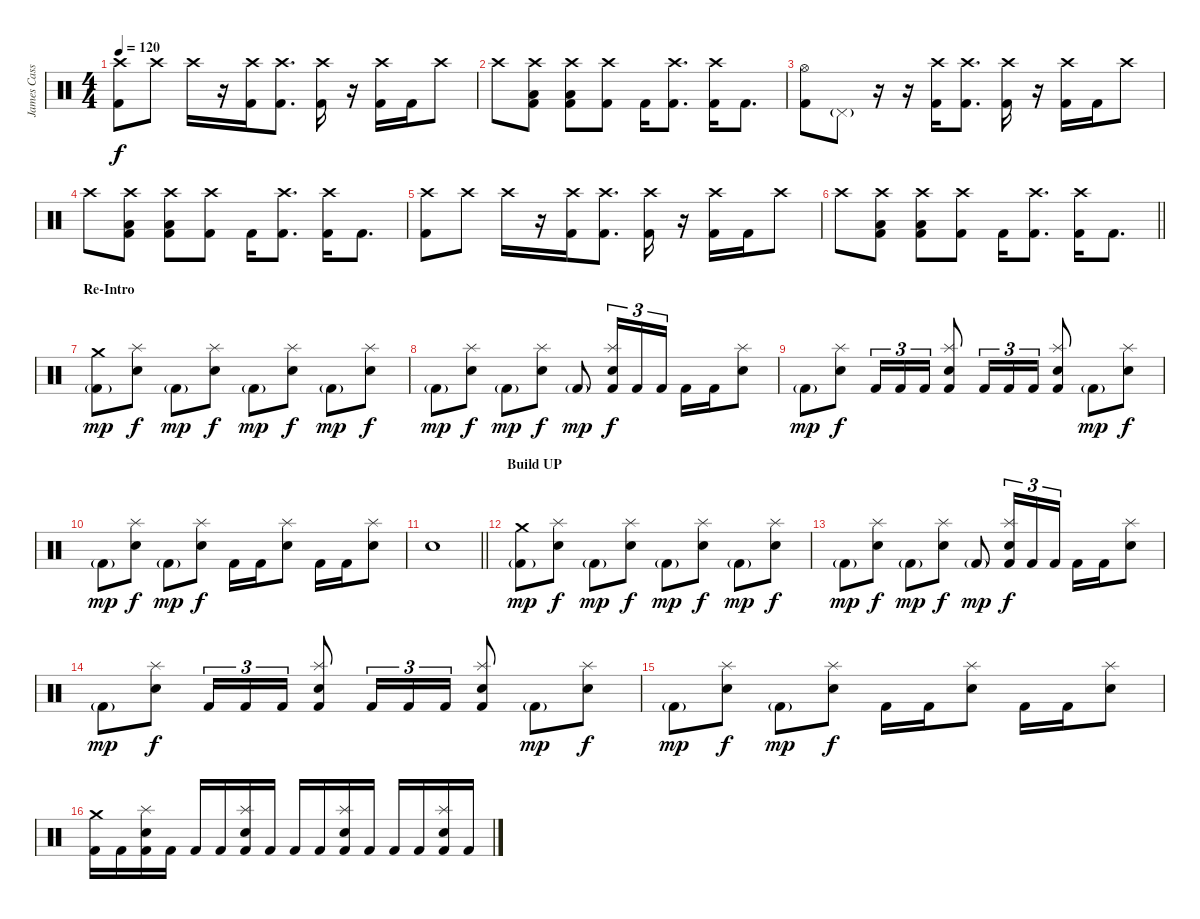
\track ("James Cassels" "James Cass") {instrument percussion}
\staff {score}
\articulation defaults
\ts (4 4)
\tempo 120
\clef neutral
\ks c
("Kick (hit) 2" "Crash high (hit)").8{dy f} "Crash high (hit)".8 "Crash high (hit)".16 r.16 ("Crash high (hit)" "Kick (hit) 2").16 ("Crash high (hit)" "Kick (hit) 2").8{d} ("Crash high (hit)" "Kick (hit) 2").16 r.16 ("Crash high (hit)" "Kick (hit) 2").16 "Kick (hit) 2".16 "Crash high (hit)".8 |
"Crash high (hit)".8 ("Crash high (hit)" "Kick (hit) 2" "Low Floor Tom (hit)").8 ("Crash high (hit)" "Kick (hit) 2" "Low Floor Tom (hit)").8 ("Crash high (hit)" "Kick (hit) 2").8 "Kick (hit) 2".16 ("Crash high (hit)" "Kick (hit) 2").8{d} ("Crash high (hit)" "Kick (hit) 2").16 "Kick (hit) 2".8{d} |
("Kick (hit) 2" "Hi-Hat (open)").8 "Pedal Hi-Hat (hit)"{g}.8 r.16 r.16 ("Crash high (hit)" "Kick (hit) 2").16 ("Crash high (hit)" "Kick (hit) 2").8{d} ("Crash high (hit)" "Kick (hit) 2").16 r.16 ("Crash high (hit)" "Kick (hit) 2").16 "Kick (hit) 2".16 "Crash high (hit)".8 |
"Crash high (hit)".8 ("Crash high (hit)" "Kick (hit) 2" "Low Floor Tom (hit)").8 ("Crash high (hit)" "Kick (hit) 2" "Low Floor Tom (hit)").8 ("Crash high (hit)" "Kick (hit) 2").8 "Kick (hit) 2".16 ("Crash high (hit)" "Kick (hit) 2").8{d} ("Crash high (hit)" "Kick (hit) 2").16 "Kick (hit) 2".8{d} |
("Kick (hit) 2" "Crash high (hit)").8 "Crash high (hit)".8 "Crash high (hit)".16 r.16 ("Crash high (hit)" "Kick (hit) 2").16 ("Crash high (hit)" "Kick (hit) 2").8{d} ("Crash high (hit)" "Kick (hit) 2").16 r.16 ("Crash high (hit)" "Kick (hit) 2").16 "Kick (hit) 2".16 "Crash high (hit)".8 |
\barLineRight lightlight "Crash high (hit)".8
("Crash high (hit)" "Kick (hit) 2" "Low Floor Tom (hit)").8 ("Crash high (hit)" "Kick (hit) 2" "Low Floor Tom (hit)").8 ("Crash high (hit)" "Kick (hit) 2").8 "Kick (hit) 2".16 ("Crash high (hit)" "Kick (hit) 2").8{d} ("Crash high (hit)" "Kick (hit) 2").16 "Kick (hit) 2".8{d} |
\section ("" "Re-Intro")
("Crash medium (hit)" "Kick (hit) 2"{g}).8{dy mp} ("Splash (hit)" "Electric Snare (hit)").8{dy f} "Kick (hit) 2"{g}.8{dy mp} ("Splash (hit)" "Electric Snare (hit)").8{dy f} "Kick (hit) 2"{g}.8{dy mp} ("Splash (hit)" "Electric Snare (hit)").8{dy f} "Kick (hit) 2"{g}.8{dy mp} ("Splash (hit)" "Electric Snare (hit)").8{dy f} |
"Kick (hit) 2"{g}.8{dy mp} ("Splash (hit)" "Electric Snare (hit)").8{dy f} "Kick (hit) 2"{g}.8{dy mp} ("Splash (hit)" "Electric Snare (hit)").8{dy f} "Kick (hit) 2"{g}.8{dy mp} ("Splash (hit)" "Electric Snare (hit)" "Kick (hit) 2").16{tu (3 2) dy f} "Kick (hit) 2".16{tu (3 2)} "Kick (hit) 2".16{tu (3 2)} "Kick (hit) 2".16 "Kick (hit) 2".16 ("Electric Snare (hit)" "Splash (hit)").8 |
"Kick (hit) 2"{g}.8{dy mp} ("Splash (hit)" "Electric Snare (hit)").8{dy f} "Kick (hit) 2".16{tu (3 2)} "Kick (hit) 2".16{tu (3 2)} "Kick (hit) 2".16{tu (3 2)} ("Splash (hit)" "Electric Snare (hit)" "Kick (hit) 2").8 "Kick (hit) 2".16{tu (3 2)} "Kick (hit) 2".16{tu (3 2)} "Kick (hit) 2".16{tu (3 2)} ("Splash (hit)" "Electric Snare (hit)" "Kick (hit) 2").8 "Kick (hit) 2"{g}.8{dy mp} ("Splash (hit)" "Electric Snare (hit)").8{dy f} |
"Kick (hit) 2"{g}.8{dy mp} ("Splash (hit)" "Electric Snare (hit)").8{dy f} "Kick (hit) 2"{g}.8{dy mp} ("Splash (hit)" "Electric Snare (hit)").8{dy f} "Kick (hit) 2".16 "Kick (hit) 2".16 ("Splash (hit)" "Electric Snare (hit)").8 "Kick (hit) 2".16 "Kick (hit) 2".16 ("Splash (hit)" "Electric Snare (hit)").8 |
\barLineRight lightlight "Electric Snare (hit)".1
|
\section ("" "Build UP")
("Crash medium (hit)" "Kick (hit) 2"{g}).8{dy mp} ("Splash (hit)" "Electric Snare (hit)").8{dy f} "Kick (hit) 2"{g}.8{dy mp} ("Splash (hit)" "Electric Snare (hit)").8{dy f} "Kick (hit) 2"{g}.8{dy mp} ("Splash (hit)" "Electric Snare (hit)").8{dy f} "Kick (hit) 2"{g}.8{dy mp} ("Splash (hit)" "Electric Snare (hit)").8{dy f} |
"Kick (hit) 2"{g}.8{dy mp} ("Splash (hit)" "Electric Snare (hit)").8{dy f} "Kick (hit) 2"{g}.8{dy mp} ("Splash (hit)" "Electric Snare (hit)").8{dy f} "Kick (hit) 2"{g}.8{dy mp} ("Splash (hit)" "Electric Snare (hit)" "Kick (hit) 2").16{tu (3 2) dy f} "Kick (hit) 2".16{tu (3 2)} "Kick (hit) 2".16{tu (3 2)} "Kick (hit) 2".16 "Kick (hit) 2".16 ("Electric Snare (hit)" "Splash (hit)").8 |
"Kick (hit) 2"{g}.8{dy mp} ("Splash (hit)" "Electric Snare (hit)").8{dy f} "Kick (hit) 2".16{tu (3 2)} "Kick (hit) 2".16{tu (3 2)} "Kick (hit) 2".16{tu (3 2)} ("Splash (hit)" "Electric Snare (hit)" "Kick (hit) 2").8 "Kick (hit) 2".16{tu (3 2)} "Kick (hit) 2".16{tu (3 2)} "Kick (hit) 2".16{tu (3 2)} ("Splash (hit)" "Electric Snare (hit)" "Kick (hit) 2").8 "Kick (hit) 2"{g}.8{dy mp} ("Splash (hit)" "Electric Snare (hit)").8{dy f} |
"Kick (hit) 2"{g}.8{dy mp} ("Splash (hit)" "Electric Snare (hit)").8{dy f} "Kick (hit) 2"{g}.8{dy mp} ("Splash (hit)" "Electric Snare (hit)").8{dy f} "Kick (hit) 2".16 "Kick (hit) 2".16 ("Splash (hit)" "Electric Snare (hit)").8 "Kick (hit) 2".16 "Kick (hit) 2".16 ("Splash (hit)" "Electric Snare (hit)").8 |
("Crash medium (hit)" "Kick (hit) 2").16 "Kick (hit) 2".16 ("Splash (hit)" "Electric Snare (hit)" "Kick (hit) 2").16 "Kick (hit) 2".16 "Kick (hit) 2".16 "Kick (hit) 2".16 ("Splash (hit)" "Electric Snare (hit)" "Kick (hit) 2").16 "Kick (hit) 2".16 "Kick (hit) 2".16 "Kick (hit) 2".16 ("Splash (hit)" "Electric Snare (hit)" "Kick (hit) 2").16 "Kick (hit) 2".16 "Kick (hit) 2".16 "Kick (hit) 2".16 ("Splash (hit)" "Electric Snare (hit)" "Kick (hit) 2").16 "Kick (hit) 2".16
